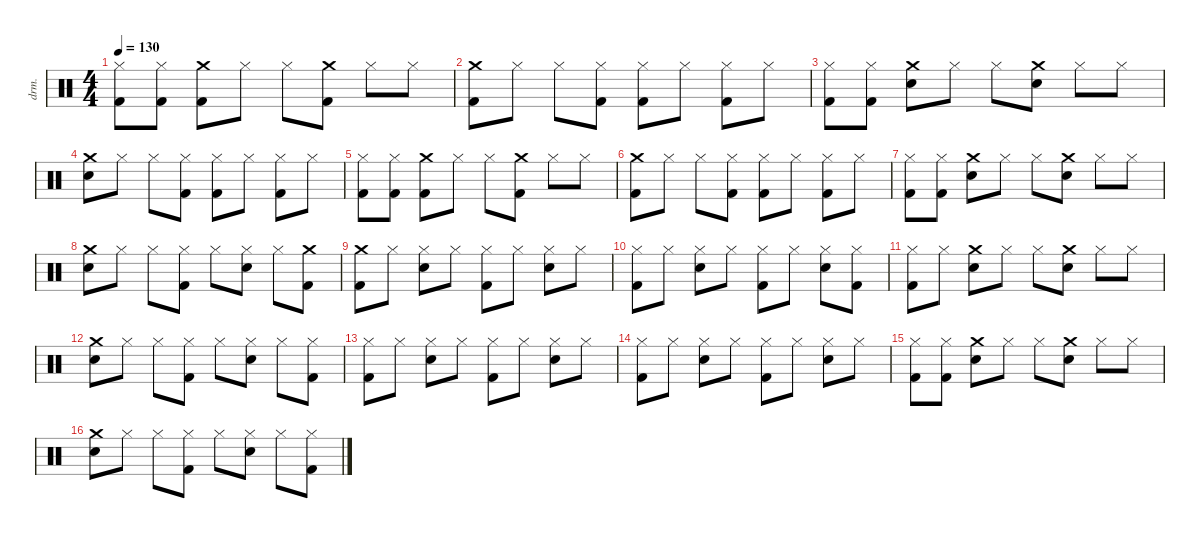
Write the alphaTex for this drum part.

\defaultSystemsLayout 4
\hideDynamics
\bracketExtendMode nobrackets
\otherSystemsTrackNameOrientation horizontal
\track ("Lars Ulrich (Drums)" "drm.") {instrument percussion}
\staff {score}
\articulation defaults
\ts (4 4)
\tempo 130
\clef neutral
\ks c
("Hi-Hat (closed)" "Kick (hit) 2").8{dy f beam Down} ("Hi-Hat (closed)" "Kick (hit) 2").8{beam Down} ("Kick (hit) 2" "Crash medium (hit)").8{beam Down} "Hi-Hat (closed)".8{beam Down} "Hi-Hat (closed)".8{beam Down} ("Crash medium (hit)" "Kick (hit) 2").8{beam Down} "Hi-Hat (closed)".8{beam Down} "Hi-Hat (closed)".8{beam Down} |
("Crash medium (hit)" "Kick (hit) 2").8{beam Down} "Hi-Hat (closed)".8{beam Down} "Hi-Hat (closed)".8{beam Down} ("Hi-Hat (closed)" "Kick (hit) 2").8{beam Down} ("Hi-Hat (closed)" "Kick (hit) 2").8{beam Down} "Hi-Hat (closed)".8{beam Down} ("Hi-Hat (closed)" "Kick (hit) 2").8{beam Down} "Hi-Hat (closed)".8{beam Down} |
("Hi-Hat (closed)" "Kick (hit) 2").8{beam Down} ("Hi-Hat (closed)" "Kick (hit) 2").8{beam Down} ("Crash medium (hit)" "Snare (hit) 2").8{beam Down} "Hi-Hat (closed)".8{beam Down} "Hi-Hat (closed)".8{beam Down} ("Crash medium (hit)" "Snare (hit) 2").8{beam Down} "Hi-Hat (closed)".8{beam Down} "Hi-Hat (closed)".8{beam Down} |
("Crash medium (hit)" "Snare (hit) 2").8{beam Down} "Hi-Hat (closed)".8{beam Down} "Hi-Hat (closed)".8{beam Down} ("Kick (hit) 2" "Hi-Hat (closed)").8{beam Down} ("Hi-Hat (closed)" "Kick (hit) 2").8{beam Down} "Hi-Hat (closed)".8{beam Down} ("Hi-Hat (closed)" "Kick (hit) 2").8{beam Down} "Hi-Hat (closed)".8{beam Down} |
("Hi-Hat (closed)" "Kick (hit) 2").8{beam Down} ("Hi-Hat (closed)" "Kick (hit) 2").8{beam Down} ("Kick (hit) 2" "Crash medium (hit)").8{beam Down} "Hi-Hat (closed)".8{beam Down} "Hi-Hat (closed)".8{beam Down} ("Crash medium (hit)" "Kick (hit) 2").8{beam Down} "Hi-Hat (closed)".8{beam Down} "Hi-Hat (closed)".8{beam Down} |
("Crash medium (hit)" "Kick (hit) 2").8{beam Down} "Hi-Hat (closed)".8{beam Down} "Hi-Hat (closed)".8{beam Down} ("Hi-Hat (closed)" "Kick (hit) 2").8{beam Down} ("Hi-Hat (closed)" "Kick (hit) 2").8{beam Down} "Hi-Hat (closed)".8{beam Down} ("Hi-Hat (closed)" "Kick (hit) 2").8{beam Down} "Hi-Hat (closed)".8{beam Down} |
("Hi-Hat (closed)" "Kick (hit) 2").8{beam Down} ("Hi-Hat (closed)" "Kick (hit) 2").8{beam Down} ("Crash medium (hit)" "Snare (hit) 2").8{beam Down} "Hi-Hat (closed)".8{beam Down} "Hi-Hat (closed)".8{beam Down} ("Crash medium (hit)" "Snare (hit) 2").8{beam Down} "Hi-Hat (closed)".8{beam Down} "Hi-Hat (closed)".8{beam Down} |
("Crash medium (hit)" "Snare (hit) 2").8{beam Down} "Hi-Hat (closed)".8{beam Down} "Hi-Hat (closed)".8{beam Down} ("Kick (hit) 2" "Hi-Hat (closed)").8{beam Down} "Hi-Hat (closed)".8{beam Down} ("Snare (hit) 2" "Hi-Hat (closed)").8{beam Down} "Hi-Hat (closed)".8{beam Down} ("Crash medium (hit)" "Kick (hit) 2").8{beam Down} |
("Crash medium (hit)" "Kick (hit) 2").8{beam Down} "Hi-Hat (closed)".8{beam Down} ("Snare (hit) 2" "Hi-Hat (closed)").8{beam Down} "Hi-Hat (closed)".8{beam Down} ("Hi-Hat (closed)" "Kick (hit) 2").8{beam Down} "Hi-Hat (closed)".8{beam Down} ("Snare (hit) 2" "Hi-Hat (closed)").8{beam Down} "Hi-Hat (closed)".8{beam Down} |
("Hi-Hat (closed)" "Kick (hit) 2").8{beam Down} "Hi-Hat (closed)".8{beam Down} ("Snare (hit) 2" "Hi-Hat (closed)").8{beam Down} "Hi-Hat (closed)".8{beam Down} ("Hi-Hat (closed)" "Kick (hit) 2").8{beam Down} "Hi-Hat (closed)".8{beam Down} ("Snare (hit) 2" "Hi-Hat (closed)").8{beam Down} ("Hi-Hat (closed)" "Kick (hit) 2").8{beam Down} |
("Hi-Hat (closed)" "Kick (hit) 2").8{beam Down} "Hi-Hat (closed)".8{beam Down} ("Crash medium (hit)" "Snare (hit) 2").8{beam Down} "Hi-Hat (closed)".8{beam Down} "Hi-Hat (closed)".8{beam Down} ("Crash medium (hit)" "Snare (hit) 2").8{beam Down} "Hi-Hat (closed)".8{beam Down} "Hi-Hat (closed)".8{beam Down} |
("Crash medium (hit)" "Snare (hit) 2").8{beam Down} "Hi-Hat (closed)".8{beam Down} "Hi-Hat (closed)".8{beam Down} ("Hi-Hat (closed)" "Kick (hit) 2").8{beam Down} "Hi-Hat (closed)".8{beam Down} ("Snare (hit) 2" "Hi-Hat (closed)").8{beam Down} "Hi-Hat (closed)".8{beam Down} ("Hi-Hat (closed)" "Kick (hit) 2").8{beam Down} |
("Hi-Hat (closed)" "Kick (hit) 2").8{beam Down} "Hi-Hat (closed)".8{beam Down} ("Snare (hit) 2" "Hi-Hat (closed)").8{beam Down} "Hi-Hat (closed)".8{beam Down} ("Hi-Hat (closed)" "Kick (hit) 2").8{beam Down} "Hi-Hat (closed)".8{beam Down} ("Snare (hit) 2" "Hi-Hat (closed)").8{beam Down} "Hi-Hat (closed)".8{beam Down} |
("Hi-Hat (closed)" "Kick (hit) 2").8{beam Down} "Hi-Hat (closed)".8{beam Down} ("Snare (hit) 2" "Hi-Hat (closed)").8{beam Down} "Hi-Hat (closed)".8{beam Down} ("Hi-Hat (closed)" "Kick (hit) 2").8{beam Down} "Hi-Hat (closed)".8{beam Down} ("Snare (hit) 2" "Hi-Hat (closed)").8{beam Down} "Hi-Hat (closed)".8{beam Down} |
("Hi-Hat (closed)" "Kick (hit) 2").8{beam Down} ("Hi-Hat (closed)" "Kick (hit) 2").8{beam Down} ("Crash medium (hit)" "Snare (hit) 2").8{beam Down} "Hi-Hat (closed)".8{beam Down} "Hi-Hat (closed)".8{beam Down} ("Crash medium (hit)" "Snare (hit) 2").8{beam Down} "Hi-Hat (closed)".8{beam Down} "Hi-Hat (closed)".8{beam Down} |
("Crash medium (hit)" "Snare (hit) 2").8{beam Down} "Hi-Hat (closed)".8{beam Down} "Hi-Hat (closed)".8{beam Down} ("Kick (hit) 2" "Hi-Hat (closed)").8{beam Down} "Hi-Hat (closed)".8{beam Down} ("Snare (hit) 2" "Hi-Hat (closed)").8{beam Down} "Hi-Hat (closed)".8{beam Down} ("Hi-Hat (closed)" "Kick (hit) 2").8{beam Down}
